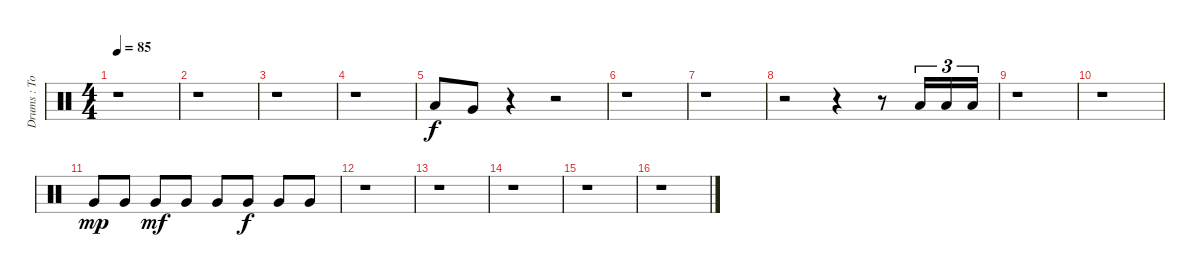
\track ("Drums : Toms" "Drums : To") {instrument percussion}
\staff {score}
\articulation defaults
\ts (4 4)
\tempo 85
\clef neutral
\ks c
r.1{dy f} |
r.1 |
r.1 |
r.1 |
"Low Tom (hit)".8 "Very Low Tom (hit)".8 r.4 r.2 |
r.1 |
r.1 |
r.2 r.4 r.8 "Low Tom (hit)".16{tu (3 2)} "Low Tom (hit)".16{tu (3 2)} "Low Tom (hit)".16{tu (3 2)} |
r.1 |
r.1 |
"Very Low Tom (hit)".8{dy mp} "Very Low Tom (hit)".8 "Very Low Tom (hit)".8{dy mf} "Very Low Tom (hit)".8 "Very Low Tom (hit)".8 "Very Low Tom (hit)".8{dy f} "Very Low Tom (hit)".8 "Very Low Tom (hit)".8 |
r.1 |
r.1 |
r.1 |
r.1 |
r.1
